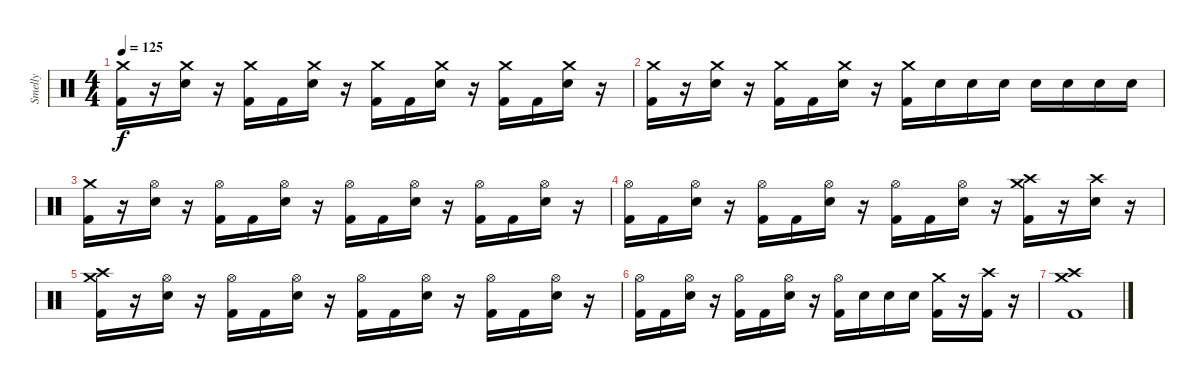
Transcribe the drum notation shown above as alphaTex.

\track ("Smelly" "Smelly") {instrument percussion}
\staff {score}
\articulation defaults
\ts (4 4)
\tempo 125
\clef neutral
\ks c
("Crash medium (hit)" "Kick (hit) 2").16{dy f} r.16 ("Crash medium (hit)" "Electric Snare (hit)").16 r.16 ("Crash medium (hit)" "Kick (hit) 2").16 "Kick (hit) 2".16 ("Crash medium (hit)" "Electric Snare (hit)").16 r.16 ("Crash medium (hit)" "Kick (hit) 2").16 "Kick (hit) 2".16 ("Crash medium (hit)" "Electric Snare (hit)").16 r.16 ("Crash medium (hit)" "Kick (hit) 2").16 "Kick (hit) 2".16 ("Crash medium (hit)" "Electric Snare (hit)").16 r.16 |
("Crash medium (hit)" "Kick (hit) 2").16 r.16 ("Crash medium (hit)" "Electric Snare (hit)").16 r.16 ("Crash medium (hit)" "Kick (hit) 2").16 "Kick (hit) 2".16 ("Crash medium (hit)" "Electric Snare (hit)").16 r.16 ("Crash medium (hit)" "Kick (hit) 2").16 "Electric Snare (hit)".16 "Electric Snare (hit)".16 "Electric Snare (hit)".16 "Electric Snare (hit)".16 "Electric Snare (hit)".16 "Electric Snare (hit)".16 "Electric Snare (hit)".16 |
("Crash medium (hit)" "Kick (hit) 2").16 r.16 ("Hi-Hat (open)" "Electric Snare (hit)").16 r.16 ("Hi-Hat (open)" "Kick (hit) 2").16 "Kick (hit) 2".16 ("Hi-Hat (open)" "Electric Snare (hit)").16 r.16 ("Hi-Hat (open)" "Kick (hit) 2").16 "Kick (hit) 2".16 ("Hi-Hat (open)" "Electric Snare (hit)").16 r.16 ("Hi-Hat (open)" "Kick (hit) 2").16 "Kick (hit) 2".16 ("Hi-Hat (open)" "Electric Snare (hit)").16 r.16 |
("Hi-Hat (open)" "Kick (hit) 2").16 "Kick (hit) 2".16 ("Hi-Hat (open)" "Electric Snare (hit)").16 r.16 ("Hi-Hat (open)" "Kick (hit) 2").16 "Kick (hit) 2".16 ("Hi-Hat (open)" "Electric Snare (hit)").16 r.16 ("Hi-Hat (open)" "Kick (hit) 2").16 "Kick (hit) 2".16 ("Hi-Hat (open)" "Electric Snare (hit)").16 r.16 ("Crash high (hit)" "Crash medium (hit)" "Kick (hit) 2").16 r.16 ("Crash high (hit)" "Electric Snare (hit)").16 r.16 |
("Crash medium (hit)" "Crash high (hit)" "Kick (hit) 2").16 r.16 ("Hi-Hat (open)" "Electric Snare (hit)").16 r.16 ("Hi-Hat (open)" "Kick (hit) 2").16 "Kick (hit) 2".16 ("Hi-Hat (open)" "Electric Snare (hit)").16 r.16 ("Hi-Hat (open)" "Kick (hit) 2").16 "Kick (hit) 2".16 ("Hi-Hat (open)" "Electric Snare (hit)").16 r.16 ("Hi-Hat (open)" "Kick (hit) 2").16 "Kick (hit) 2".16 ("Hi-Hat (open)" "Electric Snare (hit)").16 r.16 |
("Hi-Hat (open)" "Kick (hit) 2").16 "Kick (hit) 2".16 ("Hi-Hat (open)" "Electric Snare (hit)").16 r.16 ("Hi-Hat (open)" "Kick (hit) 2").16 "Kick (hit) 2".16 ("Hi-Hat (open)" "Electric Snare (hit)").16 r.16 ("Hi-Hat (open)" "Kick (hit) 2").16 "Electric Snare (hit)".16 "Electric Snare (hit)".16 "Electric Snare (hit)".16 ("Crash medium (hit)" "Kick (hit) 2").16 r.16 ("Crash high (hit)" "Kick (hit) 2").16 r.16 |
("Crash high (hit)" "Crash medium (hit)" "Kick (hit) 2").1
